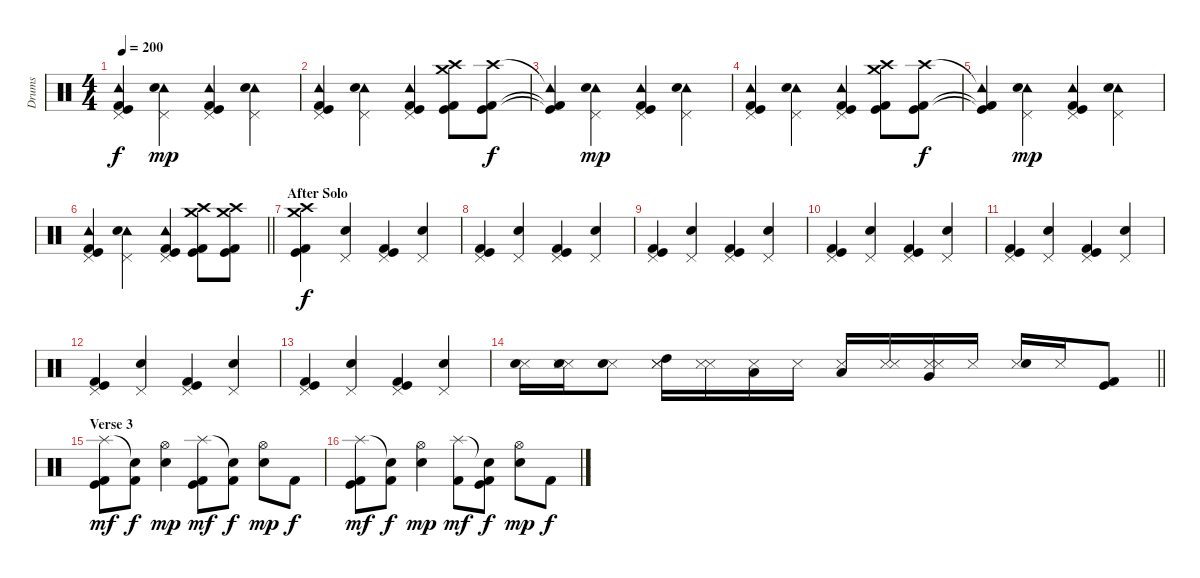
\track ("Drums" "Drums") {instrument percussion}
\staff {score}
\articulation defaults
\ts (4 4)
\tempo 200
\clef neutral
\ks c
("Tambourine (hit)"{t} "Pedal Hi-Hat (hit)"{t} "Kick (hit)"{t} "Kick (hit) 2"{t}).4{dy f} ("Tambourine (hit)" "Pedal Hi-Hat (hit)" "Snare (hit) 2").4{dy mp} ("Tambourine (hit)" "Pedal Hi-Hat (hit)" "Kick (hit)" "Kick (hit) 2").4 ("Tambourine (hit)" "Pedal Hi-Hat (hit)" "Snare (hit) 2").4 |
("Tambourine (hit)" "Pedal Hi-Hat (hit)" "Kick (hit)" "Kick (hit) 2").4 ("Tambourine (hit)" "Pedal Hi-Hat (hit)" "Snare (hit) 2").4 ("Tambourine (hit)" "Pedal Hi-Hat (hit)" "Kick (hit)" "Kick (hit) 2").4 ("Crash high (hit)" "Crash medium (hit)" "Kick (hit)" "Kick (hit) 2").8 ("Crash high (hit)" "Kick (hit)" "Kick (hit) 2").8{dy f} |
("Tambourine (hit)"{t} "Kick (hit)"{t} "Kick (hit) 2"{t}).4 ("Tambourine (hit)" "Pedal Hi-Hat (hit)" "Snare (hit) 2").4{dy mp} ("Tambourine (hit)" "Pedal Hi-Hat (hit)" "Kick (hit)" "Kick (hit) 2").4 ("Tambourine (hit)" "Pedal Hi-Hat (hit)" "Snare (hit) 2").4 |
("Tambourine (hit)" "Pedal Hi-Hat (hit)" "Kick (hit)" "Kick (hit) 2").4 ("Tambourine (hit)" "Pedal Hi-Hat (hit)" "Snare (hit) 2").4 ("Tambourine (hit)" "Pedal Hi-Hat (hit)" "Kick (hit)" "Kick (hit) 2").4 ("Crash high (hit)" "Crash medium (hit)" "Kick (hit)" "Kick (hit) 2").8 ("Crash high (hit)" "Kick (hit)" "Kick (hit) 2").8{dy f} |
("Tambourine (hit)"{t} "Kick (hit)"{t} "Kick (hit) 2"{t}).4 ("Tambourine (hit)" "Pedal Hi-Hat (hit)" "Snare (hit) 2").4{dy mp} ("Tambourine (hit)" "Pedal Hi-Hat (hit)" "Kick (hit)" "Kick (hit) 2").4 ("Tambourine (hit)" "Pedal Hi-Hat (hit)" "Snare (hit) 2").4 |
\barLineRight lightlight
("Tambourine (hit)" "Pedal Hi-Hat (hit)" "Kick (hit)" "Kick (hit) 2").4 ("Tambourine (hit)" "Pedal Hi-Hat (hit)" "Snare (hit) 2").4 ("Tambourine (hit)" "Pedal Hi-Hat (hit)" "Kick (hit)" "Kick (hit) 2").4 ("Crash high (hit)" "Crash medium (hit)" "Kick (hit)" "Kick (hit) 2").8 ("Crash high (hit)" "Crash medium (hit)" "Kick (hit)" "Kick (hit) 2").8 |
\section ("" "After Solo")
("Crash high (hit)" "Crash medium (hit)" "Kick (hit)" "Kick (hit) 2").4{dy f} ("Pedal Hi-Hat (hit)" "Snare (hit) 2").4 ("Pedal Hi-Hat (hit)" "Kick (hit)" "Kick (hit) 2").4 ("Pedal Hi-Hat (hit)" "Snare (hit) 2").4 |
("Pedal Hi-Hat (hit)" "Kick (hit)" "Kick (hit) 2").4 ("Pedal Hi-Hat (hit)" "Snare (hit) 2").4 ("Pedal Hi-Hat (hit)" "Kick (hit)" "Kick (hit) 2").4 ("Pedal Hi-Hat (hit)" "Snare (hit) 2").4 |
("Pedal Hi-Hat (hit)" "Kick (hit)" "Kick (hit) 2").4 ("Pedal Hi-Hat (hit)" "Snare (hit) 2").4 ("Pedal Hi-Hat (hit)" "Kick (hit)" "Kick (hit) 2").4 ("Pedal Hi-Hat (hit)" "Snare (hit) 2").4 |
("Pedal Hi-Hat (hit)" "Kick (hit)" "Kick (hit) 2").4 ("Pedal Hi-Hat (hit)" "Snare (hit) 2").4 ("Pedal Hi-Hat (hit)" "Kick (hit)" "Kick (hit) 2").4 ("Pedal Hi-Hat (hit)" "Snare (hit) 2").4 |
("Pedal Hi-Hat (hit)" "Kick (hit)" "Kick (hit) 2").4 ("Pedal Hi-Hat (hit)" "Snare (hit) 2").4 ("Pedal Hi-Hat (hit)" "Kick (hit)" "Kick (hit) 2").4 ("Pedal Hi-Hat (hit)" "Snare (hit) 2").4 |
("Pedal Hi-Hat (hit)" "Kick (hit)" "Kick (hit) 2").4 ("Pedal Hi-Hat (hit)" "Snare (hit) 2").4 ("Pedal Hi-Hat (hit)" "Kick (hit)" "Kick (hit) 2").4 ("Pedal Hi-Hat (hit)" "Snare (hit) 2").4 |
("Pedal Hi-Hat (hit)" "Kick (hit)" "Kick (hit) 2").4 ("Pedal Hi-Hat (hit)" "Snare (hit) 2").4 ("Pedal Hi-Hat (hit)" "Kick (hit)" "Kick (hit) 2").4 ("Pedal Hi-Hat (hit)" "Snare (hit) 2").4 |
\barLineRight lightlight
("Snare (side stick) 3" "Snare (hit) 2").16 ("Metronome (hit)" "Snare (side stick) 3" "Snare (hit) 2").16 ("Snare (side stick) 3" "Snare (hit) 2").8 ("Metronome (hit)" "Snare (side stick) 3" "High Tom (hit)").16 ("Metronome (hit)" "Snare (side stick) 3").16 ("Metronome (hit)" "Low Tom (hit)").16 "Snare (side stick) 3".16 ("Snare (side stick) 3" "Low Tom (hit)").16 ("Metronome (hit)" "Snare (side stick) 3").16 ("Metronome (hit)" "Snare (side stick) 3" "Very Low Tom (hit)").16 "Metronome (hit)".16 ("Snare (side stick) 3" "Snare (hit) 2").16 "Snare (side stick) 3".16 ("Kick (hit)" "Kick (hit) 2").8 |
\section ("" "Verse 3")
("Splash (hit)" "Kick (hit)" "Kick (hit) 2").8{dy mf} ("Snare (hit)"{t} "Kick (hit) 2").8{dy f} ("Hi-Hat (open)" "Snare (hit) 2").4{dy mp} ("Splash (hit)" "Kick (hit)" "Kick (hit) 2").8{dy mf} ("Snare (hit)"{t} "Kick (hit) 2").8{dy f} ("Hi-Hat (open)" "Snare (hit) 2").8{dy mp} "Kick (hit) 2".8{dy f} |
("Splash (hit)" "Kick (hit)" "Kick (hit) 2").8{dy mf} ("Snare (hit)"{t} "Kick (hit) 2").8{dy f} ("Hi-Hat (open)" "Snare (hit) 2").4{dy mp} ("Splash (hit)" "Kick (hit) 2").8{dy mf} ("Snare (hit)"{t} "Kick (hit)" "Kick (hit) 2").8{dy f} ("Hi-Hat (open)" "Snare (hit) 2").8{dy mp} "Kick (hit) 2".8{dy f}
